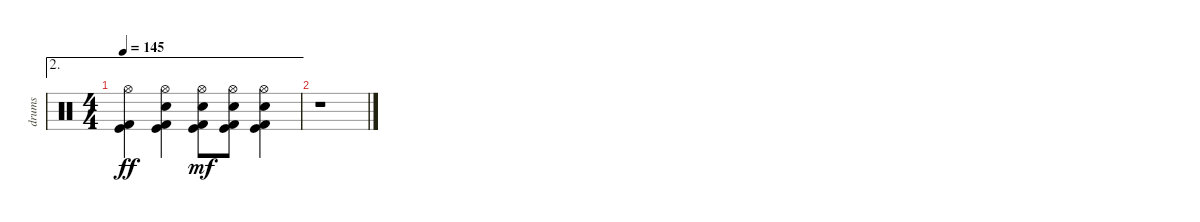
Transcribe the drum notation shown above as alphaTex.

\track ("drums" "drums") {instrument percussion}
\staff {score}
\articulation defaults
\ae 2
\ts (4 4)
\tempo 145
\clef neutral
\ks c
("Hi-Hat (open)" "Kick (hit) 2" "Kick (hit)").4{dy ff} ("Hi-Hat (open)" "Electric Snare (hit)" "Kick (hit) 2" "Kick (hit)").4 ("Hi-Hat (open)" "Electric Snare (hit)" "Kick (hit) 2" "Kick (hit)").8{dy mf} ("Hi-Hat (open)" "Electric Snare (hit)" "Kick (hit) 2" "Kick (hit)").8 ("Hi-Hat (open)" "Electric Snare (hit)" "Kick (hit) 2" "Kick (hit)").4 |
r.1
